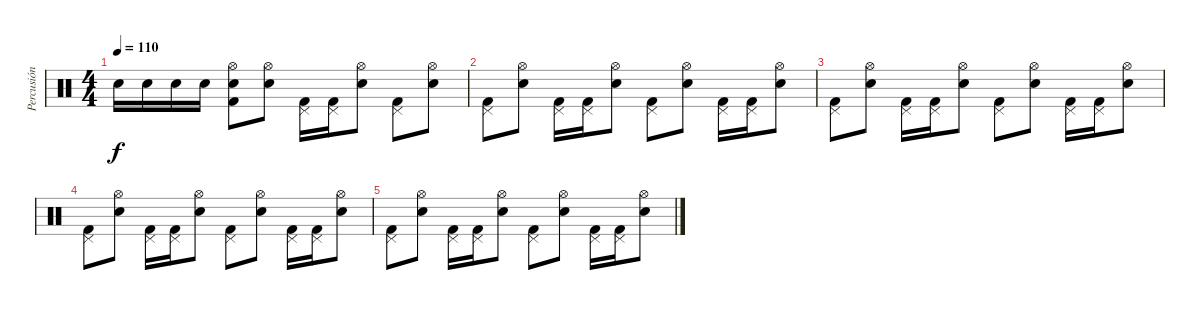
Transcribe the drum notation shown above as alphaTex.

\track ("Percusión" "Percusión") {mute instrument percussion}
\staff {score}
\articulation defaults
\ts (4 4)
\tempo 110
\clef neutral
\ks c "Snare (hit) 2".16{dy f} "Snare (hit) 2".16 "Snare (hit) 2".16 "Snare (hit) 2".16
("Hi-Hat (open)" "Snare (hit) 2" "Kick (hit) 2").8 ("Hi-Hat (open)" "Snare (hit) 2").8 ("Pedal Hi-Hat (hit)" "Kick (hit) 2").16 ("Pedal Hi-Hat (hit)" "Kick (hit) 2").16 ("Hi-Hat (open)" "Snare (hit) 2").8 ("Pedal Hi-Hat (hit)" "Kick (hit) 2").8 ("Hi-Hat (open)" "Snare (hit) 2").8 |
("Pedal Hi-Hat (hit)" "Kick (hit) 2").8 ("Hi-Hat (open)" "Snare (hit) 2").8 ("Pedal Hi-Hat (hit)" "Kick (hit) 2").16 ("Pedal Hi-Hat (hit)" "Kick (hit) 2").16 ("Hi-Hat (open)" "Snare (hit) 2").8 ("Pedal Hi-Hat (hit)" "Kick (hit) 2").8 ("Hi-Hat (open)" "Snare (hit) 2").8 ("Pedal Hi-Hat (hit)" "Kick (hit) 2").16 ("Pedal Hi-Hat (hit)" "Kick (hit) 2").16 ("Hi-Hat (open)" "Snare (hit) 2").8 |
("Pedal Hi-Hat (hit)" "Kick (hit) 2").8 ("Hi-Hat (open)" "Snare (hit) 2").8 ("Pedal Hi-Hat (hit)" "Kick (hit) 2").16 ("Pedal Hi-Hat (hit)" "Kick (hit) 2").16 ("Hi-Hat (open)" "Snare (hit) 2").8 ("Pedal Hi-Hat (hit)" "Kick (hit) 2").8 ("Hi-Hat (open)" "Snare (hit) 2").8 ("Pedal Hi-Hat (hit)" "Kick (hit) 2").16 ("Pedal Hi-Hat (hit)" "Kick (hit) 2").16 ("Hi-Hat (open)" "Snare (hit) 2").8 |
("Pedal Hi-Hat (hit)" "Kick (hit) 2").8 ("Hi-Hat (open)" "Snare (hit) 2").8 ("Pedal Hi-Hat (hit)" "Kick (hit) 2").16 ("Pedal Hi-Hat (hit)" "Kick (hit) 2").16 ("Hi-Hat (open)" "Snare (hit) 2").8 ("Pedal Hi-Hat (hit)" "Kick (hit) 2").8 ("Hi-Hat (open)" "Snare (hit) 2").8 ("Pedal Hi-Hat (hit)" "Kick (hit) 2").16 ("Pedal Hi-Hat (hit)" "Kick (hit) 2").16 ("Hi-Hat (open)" "Snare (hit) 2").8 |
("Pedal Hi-Hat (hit)" "Kick (hit) 2").8 ("Hi-Hat (open)" "Snare (hit) 2").8 ("Pedal Hi-Hat (hit)" "Kick (hit) 2").16 ("Pedal Hi-Hat (hit)" "Kick (hit) 2").16 ("Hi-Hat (open)" "Snare (hit) 2").8 ("Pedal Hi-Hat (hit)" "Kick (hit) 2").8 ("Hi-Hat (open)" "Snare (hit) 2").8 ("Pedal Hi-Hat (hit)" "Kick (hit) 2").16 ("Pedal Hi-Hat (hit)" "Kick (hit) 2").16 ("Hi-Hat (open)" "Snare (hit) 2").8
